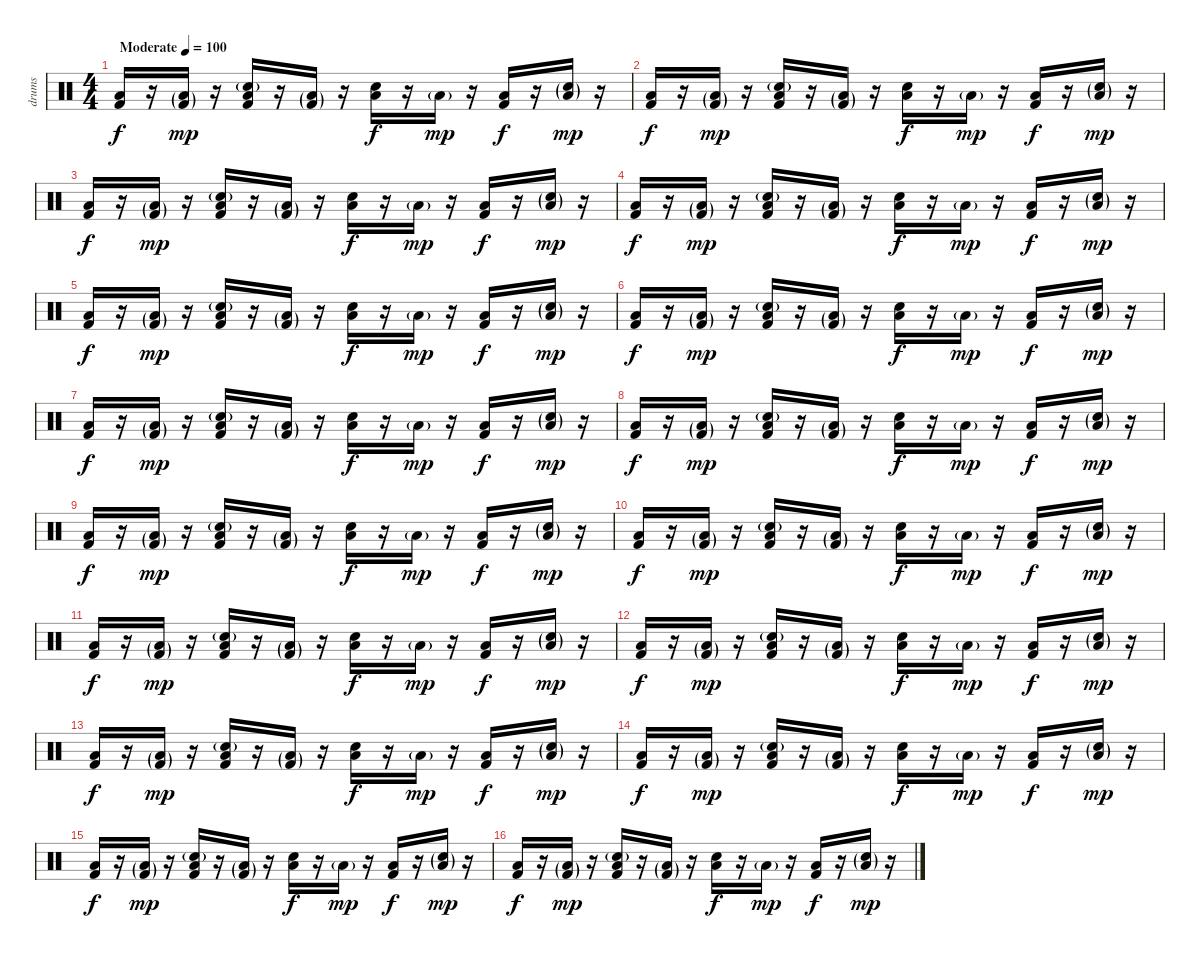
\track ("drums" "drums") {instrument percussion}
\staff {score}
\articulation defaults
\ts (4 4)
\tempo (100 "Moderate")
\clef neutral
\ks c
("Low Floor Tom (hit)" "Kick (hit) 2").16{dy f} r.16 ("Low Floor Tom (hit)"{g} "Kick (hit) 2"{g}).16{dy mp} r.16 ("Low Floor Tom (hit)" "Snare (hit) 2"{g} "Kick (hit) 2").16 r.16 ("Low Floor Tom (hit)"{g} "Kick (hit) 2"{g}).16 r.16 ("Low Floor Tom (hit)" "Snare (hit) 2").16{dy f} r.16 "Low Floor Tom (hit)"{g}.16{dy mp} r.16 ("Low Floor Tom (hit)" "Kick (hit) 2").16{dy f} r.16 ("Low Floor Tom (hit)"{g} "Snare (hit) 2"{g}).16{dy mp} r.16 |
("Low Floor Tom (hit)" "Kick (hit) 2").16{dy f} r.16 ("Low Floor Tom (hit)"{g} "Kick (hit) 2"{g}).16{dy mp} r.16 ("Low Floor Tom (hit)" "Snare (hit) 2"{g} "Kick (hit) 2").16 r.16 ("Low Floor Tom (hit)"{g} "Kick (hit) 2"{g}).16 r.16 ("Low Floor Tom (hit)" "Snare (hit) 2").16{dy f} r.16 "Low Floor Tom (hit)"{g}.16{dy mp} r.16 ("Low Floor Tom (hit)" "Kick (hit) 2").16{dy f} r.16 ("Low Floor Tom (hit)"{g} "Snare (hit) 2"{g}).16{dy mp} r.16 |
("Low Floor Tom (hit)" "Kick (hit) 2").16{dy f} r.16 ("Low Floor Tom (hit)"{g} "Kick (hit) 2"{g}).16{dy mp} r.16 ("Low Floor Tom (hit)" "Snare (hit) 2"{g} "Kick (hit) 2").16 r.16 ("Low Floor Tom (hit)"{g} "Kick (hit) 2"{g}).16 r.16 ("Low Floor Tom (hit)" "Snare (hit) 2").16{dy f} r.16 "Low Floor Tom (hit)"{g}.16{dy mp} r.16 ("Low Floor Tom (hit)" "Kick (hit) 2").16{dy f} r.16 ("Low Floor Tom (hit)"{g} "Snare (hit) 2"{g}).16{dy mp} r.16 |
("Low Floor Tom (hit)" "Kick (hit) 2").16{dy f} r.16 ("Low Floor Tom (hit)"{g} "Kick (hit) 2"{g}).16{dy mp} r.16 ("Low Floor Tom (hit)" "Snare (hit) 2"{g} "Kick (hit) 2").16 r.16 ("Low Floor Tom (hit)"{g} "Kick (hit) 2"{g}).16 r.16 ("Low Floor Tom (hit)" "Snare (hit) 2").16{dy f} r.16 "Low Floor Tom (hit)"{g}.16{dy mp} r.16 ("Low Floor Tom (hit)" "Kick (hit) 2").16{dy f} r.16 ("Low Floor Tom (hit)"{g} "Snare (hit) 2"{g}).16{dy mp} r.16 |
("Low Floor Tom (hit)" "Kick (hit) 2").16{dy f} r.16 ("Low Floor Tom (hit)"{g} "Kick (hit) 2"{g}).16{dy mp} r.16 ("Low Floor Tom (hit)" "Snare (hit) 2"{g} "Kick (hit) 2").16 r.16 ("Low Floor Tom (hit)"{g} "Kick (hit) 2"{g}).16 r.16 ("Low Floor Tom (hit)" "Snare (hit) 2").16{dy f} r.16 "Low Floor Tom (hit)"{g}.16{dy mp} r.16 ("Low Floor Tom (hit)" "Kick (hit) 2").16{dy f} r.16 ("Low Floor Tom (hit)"{g} "Snare (hit) 2"{g}).16{dy mp} r.16 |
("Low Floor Tom (hit)" "Kick (hit) 2").16{dy f} r.16 ("Low Floor Tom (hit)"{g} "Kick (hit) 2"{g}).16{dy mp} r.16 ("Low Floor Tom (hit)" "Snare (hit) 2"{g} "Kick (hit) 2").16 r.16 ("Low Floor Tom (hit)"{g} "Kick (hit) 2"{g}).16 r.16 ("Low Floor Tom (hit)" "Snare (hit) 2").16{dy f} r.16 "Low Floor Tom (hit)"{g}.16{dy mp} r.16 ("Low Floor Tom (hit)" "Kick (hit) 2").16{dy f} r.16 ("Low Floor Tom (hit)"{g} "Snare (hit) 2"{g}).16{dy mp} r.16 |
("Low Floor Tom (hit)" "Kick (hit) 2").16{dy f} r.16 ("Low Floor Tom (hit)"{g} "Kick (hit) 2"{g}).16{dy mp} r.16 ("Low Floor Tom (hit)" "Snare (hit) 2"{g} "Kick (hit) 2").16 r.16 ("Low Floor Tom (hit)"{g} "Kick (hit) 2"{g}).16 r.16 ("Low Floor Tom (hit)" "Snare (hit) 2").16{dy f} r.16 "Low Floor Tom (hit)"{g}.16{dy mp} r.16 ("Low Floor Tom (hit)" "Kick (hit) 2").16{dy f} r.16 ("Low Floor Tom (hit)"{g} "Snare (hit) 2"{g}).16{dy mp} r.16 |
("Low Floor Tom (hit)" "Kick (hit) 2").16{dy f} r.16 ("Low Floor Tom (hit)"{g} "Kick (hit) 2"{g}).16{dy mp} r.16 ("Low Floor Tom (hit)" "Snare (hit) 2"{g} "Kick (hit) 2").16 r.16 ("Low Floor Tom (hit)"{g} "Kick (hit) 2"{g}).16 r.16 ("Low Floor Tom (hit)" "Snare (hit) 2").16{dy f} r.16 "Low Floor Tom (hit)"{g}.16{dy mp} r.16 ("Low Floor Tom (hit)" "Kick (hit) 2").16{dy f} r.16 ("Low Floor Tom (hit)"{g} "Snare (hit) 2"{g}).16{dy mp} r.16 |
("Low Floor Tom (hit)" "Kick (hit) 2").16{dy f} r.16 ("Low Floor Tom (hit)"{g} "Kick (hit) 2"{g}).16{dy mp} r.16 ("Low Floor Tom (hit)" "Snare (hit) 2"{g} "Kick (hit) 2").16 r.16 ("Low Floor Tom (hit)"{g} "Kick (hit) 2"{g}).16 r.16 ("Low Floor Tom (hit)" "Snare (hit) 2").16{dy f} r.16 "Low Floor Tom (hit)"{g}.16{dy mp} r.16 ("Low Floor Tom (hit)" "Kick (hit) 2").16{dy f} r.16 ("Low Floor Tom (hit)"{g} "Snare (hit) 2"{g}).16{dy mp} r.16 |
("Low Floor Tom (hit)" "Kick (hit) 2").16{dy f} r.16 ("Low Floor Tom (hit)"{g} "Kick (hit) 2"{g}).16{dy mp} r.16 ("Low Floor Tom (hit)" "Snare (hit) 2"{g} "Kick (hit) 2").16 r.16 ("Low Floor Tom (hit)"{g} "Kick (hit) 2"{g}).16 r.16 ("Low Floor Tom (hit)" "Snare (hit) 2").16{dy f} r.16 "Low Floor Tom (hit)"{g}.16{dy mp} r.16 ("Low Floor Tom (hit)" "Kick (hit) 2").16{dy f} r.16 ("Low Floor Tom (hit)"{g} "Snare (hit) 2"{g}).16{dy mp} r.16 |
("Low Floor Tom (hit)" "Kick (hit) 2").16{dy f} r.16 ("Low Floor Tom (hit)"{g} "Kick (hit) 2"{g}).16{dy mp} r.16 ("Low Floor Tom (hit)" "Snare (hit) 2"{g} "Kick (hit) 2").16 r.16 ("Low Floor Tom (hit)"{g} "Kick (hit) 2"{g}).16 r.16 ("Low Floor Tom (hit)" "Snare (hit) 2").16{dy f} r.16 "Low Floor Tom (hit)"{g}.16{dy mp} r.16 ("Low Floor Tom (hit)" "Kick (hit) 2").16{dy f} r.16 ("Low Floor Tom (hit)"{g} "Snare (hit) 2"{g}).16{dy mp} r.16 |
("Low Floor Tom (hit)" "Kick (hit) 2").16{dy f} r.16 ("Low Floor Tom (hit)"{g} "Kick (hit) 2"{g}).16{dy mp} r.16 ("Low Floor Tom (hit)" "Snare (hit) 2"{g} "Kick (hit) 2").16 r.16 ("Low Floor Tom (hit)"{g} "Kick (hit) 2"{g}).16 r.16 ("Low Floor Tom (hit)" "Snare (hit) 2").16{dy f} r.16 "Low Floor Tom (hit)"{g}.16{dy mp} r.16 ("Low Floor Tom (hit)" "Kick (hit) 2").16{dy f} r.16 ("Low Floor Tom (hit)"{g} "Snare (hit) 2"{g}).16{dy mp} r.16 |
("Low Floor Tom (hit)" "Kick (hit) 2").16{dy f} r.16 ("Low Floor Tom (hit)"{g} "Kick (hit) 2"{g}).16{dy mp} r.16 ("Low Floor Tom (hit)" "Snare (hit) 2"{g} "Kick (hit) 2").16 r.16 ("Low Floor Tom (hit)"{g} "Kick (hit) 2"{g}).16 r.16 ("Low Floor Tom (hit)" "Snare (hit) 2").16{dy f} r.16 "Low Floor Tom (hit)"{g}.16{dy mp} r.16 ("Low Floor Tom (hit)" "Kick (hit) 2").16{dy f} r.16 ("Low Floor Tom (hit)"{g} "Snare (hit) 2"{g}).16{dy mp} r.16 |
("Low Floor Tom (hit)" "Kick (hit) 2").16{dy f} r.16 ("Low Floor Tom (hit)"{g} "Kick (hit) 2"{g}).16{dy mp} r.16 ("Low Floor Tom (hit)" "Snare (hit) 2"{g} "Kick (hit) 2").16 r.16 ("Low Floor Tom (hit)"{g} "Kick (hit) 2"{g}).16 r.16 ("Low Floor Tom (hit)" "Snare (hit) 2").16{dy f} r.16 "Low Floor Tom (hit)"{g}.16{dy mp} r.16 ("Low Floor Tom (hit)" "Kick (hit) 2").16{dy f} r.16 ("Low Floor Tom (hit)"{g} "Snare (hit) 2"{g}).16{dy mp} r.16 |
("Low Floor Tom (hit)" "Kick (hit) 2").16{dy f} r.16 ("Low Floor Tom (hit)"{g} "Kick (hit) 2"{g}).16{dy mp} r.16 ("Low Floor Tom (hit)" "Snare (hit) 2"{g} "Kick (hit) 2").16 r.16 ("Low Floor Tom (hit)"{g} "Kick (hit) 2"{g}).16 r.16 ("Low Floor Tom (hit)" "Snare (hit) 2").16{dy f} r.16 "Low Floor Tom (hit)"{g}.16{dy mp} r.16 ("Low Floor Tom (hit)" "Kick (hit) 2").16{dy f} r.16 ("Low Floor Tom (hit)"{g} "Snare (hit) 2"{g}).16{dy mp} r.16 |
("Low Floor Tom (hit)" "Kick (hit) 2").16{dy f} r.16 ("Low Floor Tom (hit)"{g} "Kick (hit) 2"{g}).16{dy mp} r.16 ("Low Floor Tom (hit)" "Snare (hit) 2"{g} "Kick (hit) 2").16 r.16 ("Low Floor Tom (hit)"{g} "Kick (hit) 2"{g}).16 r.16 ("Low Floor Tom (hit)" "Snare (hit) 2").16{dy f} r.16 "Low Floor Tom (hit)"{g}.16{dy mp} r.16 ("Low Floor Tom (hit)" "Kick (hit) 2").16{dy f} r.16 ("Low Floor Tom (hit)"{g} "Snare (hit) 2"{g}).16{dy mp} r.16
